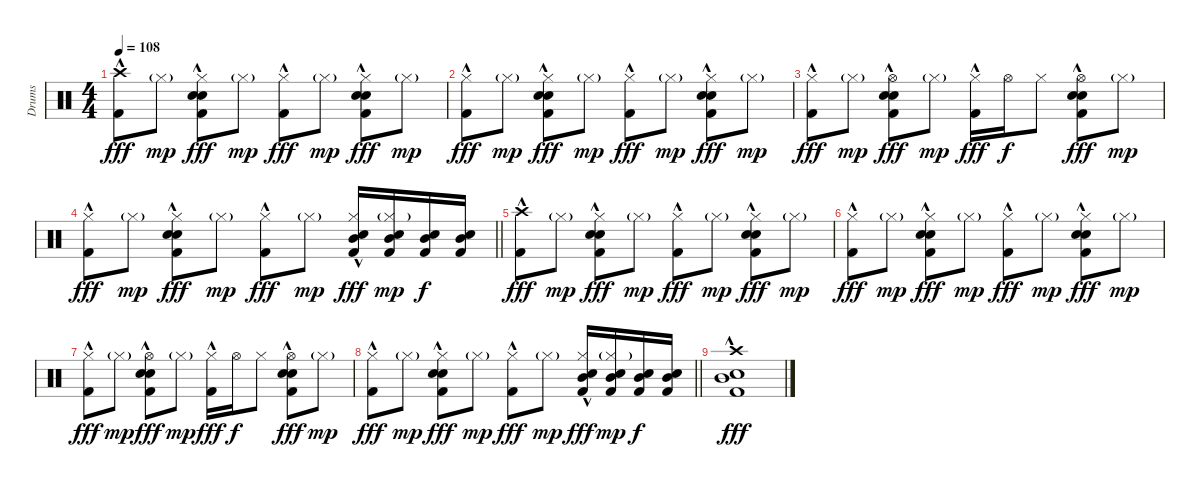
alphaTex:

\track ("Drums" "Drums") {instrument percussion}
\staff {score}
\articulation defaults
\ts (4 4)
\tempo 108
\clef neutral
\ks c
("Crash high (hit)" "Kick (hit) 2"{hac}).8{dy fff} "Hi-Hat (closed)"{g}.8{dy mp} ("Hi-Hat (closed)" "Snare (hit) 2" "Snare (hit) 2" "Kick (hit) 2"{hac}).8{dy fff} "Hi-Hat (closed)"{g}.8{dy mp} ("Hi-Hat (closed)" "Kick (hit) 2"{hac}).8{dy fff} "Hi-Hat (closed)"{g}.8{dy mp} ("Hi-Hat (closed)" "Snare (hit) 2" "Snare (hit) 2" "Kick (hit) 2"{hac}).8{dy fff} "Hi-Hat (closed)"{g}.8{dy mp} |
("Hi-Hat (closed)" "Kick (hit) 2"{hac}).8{dy fff} "Hi-Hat (closed)"{g}.8{dy mp} ("Hi-Hat (closed)" "Snare (hit) 2" "Snare (hit) 2" "Kick (hit) 2"{hac}).8{dy fff} "Hi-Hat (closed)"{g}.8{dy mp} ("Hi-Hat (closed)" "Kick (hit) 2"{hac}).8{dy fff} "Hi-Hat (closed)"{g}.8{dy mp} ("Hi-Hat (closed)" "Snare (hit) 2" "Snare (hit) 2" "Kick (hit) 2"{hac}).8{dy fff} "Hi-Hat (closed)"{g}.8{dy mp} |
("Hi-Hat (closed)" "Kick (hit) 2"{hac}).8{dy fff} "Hi-Hat (closed)"{g}.8{dy mp} ("Hi-Hat (open)" "Snare (hit) 2" "Snare (hit) 2" "Kick (hit) 2"{hac}).8{dy fff} "Hi-Hat (closed)"{g}.8{dy mp} ("Hi-Hat (closed)" "Kick (hit) 2"{hac}).16{dy fff} "Hi-Hat (open)".16{dy f} "Hi-Hat (closed)".8 ("Hi-Hat (open)" "Snare (hit) 2" "Snare (hit) 2" "Kick (hit) 2"{hac}).8{dy fff} "Hi-Hat (closed)"{g}.8{dy mp} |
\barLineRight lightlight
("Hi-Hat (closed)" "Kick (hit) 2"{hac}).8{dy fff} "Hi-Hat (closed)"{g}.8{dy mp} ("Hi-Hat (closed)" "Snare (hit) 2" "Snare (hit) 2" "Kick (hit) 2"{hac}).8{dy fff} "Hi-Hat (closed)"{g}.8{dy mp} ("Hi-Hat (closed)" "Kick (hit) 2"{hac}).8{dy fff} "Hi-Hat (closed)"{g}.8{dy mp} ("Hi-Hat (closed)" "Mid Tom (hit)" "Snare (hit) 2" "Kick (hit) 2"{hac}).16{dy fff} ("Hi-Hat (closed)"{g} "Mid Tom (hit)" "Snare (hit) 2" "Kick (hit) 2").16{dy mp} ("Mid Tom (hit)" "Snare (hit) 2" "Kick (hit) 2").16{dy f} ("Mid Tom (hit)" "Snare (hit) 2" "Kick (hit) 2").16 |
("Crash high (hit)" "Kick (hit) 2"{hac}).8{dy fff} "Hi-Hat (closed)"{g}.8{dy mp} ("Hi-Hat (closed)" "Snare (hit) 2" "Snare (hit) 2" "Kick (hit) 2"{hac}).8{dy fff} "Hi-Hat (closed)"{g}.8{dy mp} ("Hi-Hat (closed)" "Kick (hit) 2"{hac}).8{dy fff} "Hi-Hat (closed)"{g}.8{dy mp} ("Hi-Hat (closed)" "Snare (hit) 2" "Snare (hit) 2" "Kick (hit) 2"{hac}).8{dy fff} "Hi-Hat (closed)"{g}.8{dy mp} |
("Hi-Hat (closed)" "Kick (hit) 2"{hac}).8{dy fff} "Hi-Hat (closed)"{g}.8{dy mp} ("Hi-Hat (closed)" "Snare (hit) 2" "Snare (hit) 2" "Kick (hit) 2"{hac}).8{dy fff} "Hi-Hat (closed)"{g}.8{dy mp} ("Hi-Hat (closed)" "Kick (hit) 2"{hac}).8{dy fff} "Hi-Hat (closed)"{g}.8{dy mp} ("Hi-Hat (closed)" "Snare (hit) 2" "Snare (hit) 2" "Kick (hit) 2"{hac}).8{dy fff} "Hi-Hat (closed)"{g}.8{dy mp} |
("Hi-Hat (closed)" "Kick (hit) 2"{hac}).8{dy fff} "Hi-Hat (closed)"{g}.8{dy mp} ("Hi-Hat (open)" "Snare (hit) 2" "Snare (hit) 2" "Kick (hit) 2"{hac}).8{dy fff} "Hi-Hat (closed)"{g}.8{dy mp} ("Hi-Hat (closed)" "Kick (hit) 2"{hac}).16{dy fff} "Hi-Hat (open)".16{dy f} "Hi-Hat (closed)".8 ("Hi-Hat (open)" "Snare (hit) 2" "Snare (hit) 2" "Kick (hit) 2"{hac}).8{dy fff} "Hi-Hat (closed)"{g}.8{dy mp} |
\barLineRight lightlight
("Hi-Hat (closed)" "Kick (hit) 2"{hac}).8{dy fff} "Hi-Hat (closed)"{g}.8{dy mp} ("Hi-Hat (closed)" "Snare (hit) 2" "Snare (hit) 2" "Kick (hit) 2"{hac}).8{dy fff} "Hi-Hat (closed)"{g}.8{dy mp} ("Hi-Hat (closed)" "Kick (hit) 2"{hac}).8{dy fff} "Hi-Hat (closed)"{g}.8{dy mp} ("Hi-Hat (closed)" "Mid Tom (hit)" "Snare (hit) 2" "Kick (hit) 2"{hac}).16{dy fff} ("Hi-Hat (closed)"{g} "Mid Tom (hit)" "Snare (hit) 2" "Kick (hit) 2").16{dy mp} ("Mid Tom (hit)" "Snare (hit) 2" "Kick (hit) 2").16{dy f} ("Mid Tom (hit)" "Snare (hit) 2" "Kick (hit) 2").16 |
("Crash high (hit)" "Mid Tom (hit)" "Snare (hit) 2" "Kick (hit) 2"{hac}).1{dy fff}
